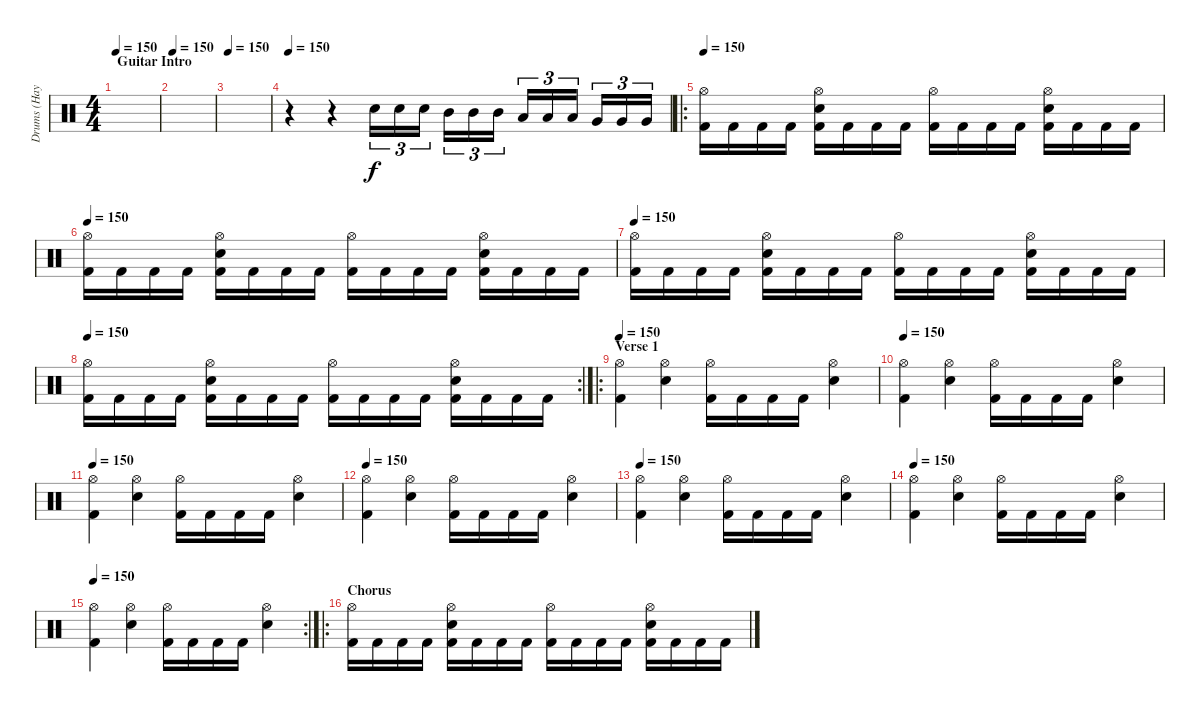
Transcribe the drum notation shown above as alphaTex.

\track ("Drums (Hayden)" "Drums (Hay") {instrument percussion}
\staff {score}
\articulation defaults
\ts (4 4)
\section ("" "Guitar Intro")
\tempo 150
\clef neutral
\ks c
|
\tempo 150
|
\tempo 150
|
\tempo 150
r.4 r.4 "Electric Snare (hit)".16{tu (3 2)} "Electric Snare (hit)".16{tu (3 2)} "Electric Snare (hit)".16{tu (3 2)} "Mid Tom (hit)".16{tu (3 2)} "Mid Tom (hit)".16{tu (3 2)} "Mid Tom (hit)".16{tu (3 2)} "Low Tom (hit)".16{tu (3 2)} "Low Tom (hit)".16{tu (3 2)} "Low Tom (hit)".16{tu (3 2)} "Very Low Tom (hit)".16{tu (3 2)} "Very Low Tom (hit)".16{tu (3 2)} "Very Low Tom (hit)".16{tu (3 2)} |
\ro
\tempo 150
("Kick (hit) 2" "Hi-Hat (open)").16 "Kick (hit) 2".16 "Kick (hit) 2".16 "Kick (hit) 2".16 ("Kick (hit) 2" "Hi-Hat (open)" "Electric Snare (hit)").16 "Kick (hit) 2".16 "Kick (hit) 2".16 "Kick (hit) 2".16 ("Kick (hit) 2" "Hi-Hat (open)").16 "Kick (hit) 2".16 "Kick (hit) 2".16 "Kick (hit) 2".16 ("Kick (hit) 2" "Hi-Hat (open)" "Electric Snare (hit)").16 "Kick (hit) 2".16 "Kick (hit) 2".16 "Kick (hit) 2".16 |
\tempo 150
("Kick (hit) 2" "Hi-Hat (open)").16 "Kick (hit) 2".16 "Kick (hit) 2".16 "Kick (hit) 2".16 ("Kick (hit) 2" "Hi-Hat (open)" "Electric Snare (hit)").16 "Kick (hit) 2".16 "Kick (hit) 2".16 "Kick (hit) 2".16 ("Kick (hit) 2" "Hi-Hat (open)").16 "Kick (hit) 2".16 "Kick (hit) 2".16 "Kick (hit) 2".16 ("Kick (hit) 2" "Hi-Hat (open)" "Electric Snare (hit)").16 "Kick (hit) 2".16 "Kick (hit) 2".16 "Kick (hit) 2".16 |
\tempo 150
("Kick (hit) 2" "Hi-Hat (open)").16 "Kick (hit) 2".16 "Kick (hit) 2".16 "Kick (hit) 2".16 ("Kick (hit) 2" "Hi-Hat (open)" "Electric Snare (hit)").16 "Kick (hit) 2".16 "Kick (hit) 2".16 "Kick (hit) 2".16 ("Kick (hit) 2" "Hi-Hat (open)").16 "Kick (hit) 2".16 "Kick (hit) 2".16 "Kick (hit) 2".16 ("Kick (hit) 2" "Hi-Hat (open)" "Electric Snare (hit)").16 "Kick (hit) 2".16 "Kick (hit) 2".16 "Kick (hit) 2".16 |
\rc 2
\tempo 150
("Kick (hit) 2" "Hi-Hat (open)").16 "Kick (hit) 2".16 "Kick (hit) 2".16 "Kick (hit) 2".16 ("Kick (hit) 2" "Hi-Hat (open)" "Electric Snare (hit)").16 "Kick (hit) 2".16 "Kick (hit) 2".16 "Kick (hit) 2".16 ("Kick (hit) 2" "Hi-Hat (open)").16 "Kick (hit) 2".16 "Kick (hit) 2".16 "Kick (hit) 2".16 ("Kick (hit) 2" "Hi-Hat (open)" "Electric Snare (hit)").16 "Kick (hit) 2".16 "Kick (hit) 2".16 "Kick (hit) 2".16 |
\ro
\section ("" "Verse 1")
\tempo 150
("Hi-Hat (open)" "Kick (hit) 2").4 ("Hi-Hat (open)" "Electric Snare (hit)").4 ("Hi-Hat (open)" "Kick (hit) 2").16 "Kick (hit) 2".16 "Kick (hit) 2".16 "Kick (hit) 2".16 ("Hi-Hat (open)" "Electric Snare (hit)").4 |
\tempo 150
("Hi-Hat (open)" "Kick (hit) 2").4 ("Hi-Hat (open)" "Electric Snare (hit)").4 ("Hi-Hat (open)" "Kick (hit) 2").16 "Kick (hit) 2".16 "Kick (hit) 2".16 "Kick (hit) 2".16 ("Hi-Hat (open)" "Electric Snare (hit)").4 |
\tempo 150
("Hi-Hat (open)" "Kick (hit) 2").4 ("Hi-Hat (open)" "Electric Snare (hit)").4 ("Hi-Hat (open)" "Kick (hit) 2").16 "Kick (hit) 2".16 "Kick (hit) 2".16 "Kick (hit) 2".16 ("Hi-Hat (open)" "Electric Snare (hit)").4 |
\tempo 150
("Hi-Hat (open)" "Kick (hit) 2").4 ("Hi-Hat (open)" "Electric Snare (hit)").4 ("Hi-Hat (open)" "Kick (hit) 2").16 "Kick (hit) 2".16 "Kick (hit) 2".16 "Kick (hit) 2".16 ("Hi-Hat (open)" "Electric Snare (hit)").4 |
\tempo 150
("Hi-Hat (open)" "Kick (hit) 2").4 ("Hi-Hat (open)" "Electric Snare (hit)").4 ("Hi-Hat (open)" "Kick (hit) 2").16 "Kick (hit) 2".16 "Kick (hit) 2".16 "Kick (hit) 2".16 ("Hi-Hat (open)" "Electric Snare (hit)").4 |
\tempo 150
("Hi-Hat (open)" "Kick (hit) 2").4 ("Hi-Hat (open)" "Electric Snare (hit)").4 ("Hi-Hat (open)" "Kick (hit) 2").16 "Kick (hit) 2".16 "Kick (hit) 2".16 "Kick (hit) 2".16 ("Hi-Hat (open)" "Electric Snare (hit)").4 |
\rc 2
\tempo 150
("Hi-Hat (open)" "Kick (hit) 2").4 ("Hi-Hat (open)" "Electric Snare (hit)").4 ("Hi-Hat (open)" "Kick (hit) 2").16 "Kick (hit) 2".16 "Kick (hit) 2".16 "Kick (hit) 2".16 ("Hi-Hat (open)" "Electric Snare (hit)").4 |
\ro
\section ("" "Chorus")
("Kick (hit) 2" "Hi-Hat (open)").16 "Kick (hit) 2".16 "Kick (hit) 2".16 "Kick (hit) 2".16 ("Kick (hit) 2" "Hi-Hat (open)" "Electric Snare (hit)").16 "Kick (hit) 2".16 "Kick (hit) 2".16 "Kick (hit) 2".16 ("Kick (hit) 2" "Hi-Hat (open)").16 "Kick (hit) 2".16 "Kick (hit) 2".16 "Kick (hit) 2".16 ("Kick (hit) 2" "Hi-Hat (open)" "Electric Snare (hit)").16 "Kick (hit) 2".16 "Kick (hit) 2".16 "Kick (hit) 2".16
